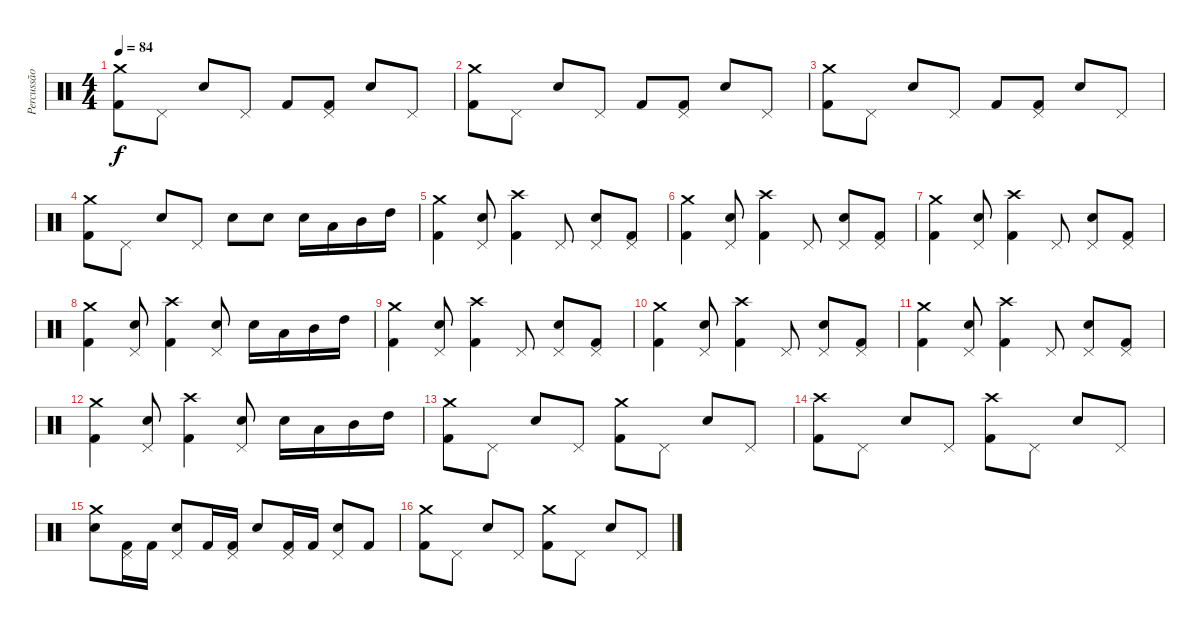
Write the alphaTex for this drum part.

\track ("Percussão" "Percussão") {instrument percussion}
\staff {score}
\articulation defaults
\ts (4 4)
\tempo 84
\clef neutral
\ks c
("Crash medium (hit)" "Kick (hit) 2").8{dy f} "Pedal Hi-Hat (hit)".8 "Snare (hit) 2".8 "Pedal Hi-Hat (hit)".8 "Kick (hit) 2".8 ("Pedal Hi-Hat (hit)" "Kick (hit) 2").8 "Snare (hit) 2".8 "Pedal Hi-Hat (hit)".8 |
("Crash medium (hit)" "Kick (hit) 2").8 "Pedal Hi-Hat (hit)".8 "Snare (hit) 2".8 "Pedal Hi-Hat (hit)".8 "Kick (hit) 2".8 ("Pedal Hi-Hat (hit)" "Kick (hit) 2").8 "Snare (hit) 2".8 "Pedal Hi-Hat (hit)".8 |
("Crash medium (hit)" "Kick (hit) 2").8 "Pedal Hi-Hat (hit)".8 "Snare (hit) 2".8 "Pedal Hi-Hat (hit)".8 "Kick (hit) 2".8 ("Pedal Hi-Hat (hit)" "Kick (hit) 2").8 "Snare (hit) 2".8 "Pedal Hi-Hat (hit)".8 |
("Crash medium (hit)" "Kick (hit) 2").8 "Pedal Hi-Hat (hit)".8 "Snare (hit) 2".8 "Pedal Hi-Hat (hit)".8 "Electric Snare (hit)".8 "Electric Snare (hit)".8 "Electric Snare (hit)".16 "Low Tom (hit)".16 "Mid Tom (hit)".16 "High Tom (hit)".16 |
("Crash medium (hit)" "Kick (hit) 2").4 ("Pedal Hi-Hat (hit)" "Snare (hit) 2").8 ("Crash high (hit)" "Kick (hit) 2").4 "Pedal Hi-Hat (hit)".8 ("Pedal Hi-Hat (hit)" "Snare (hit) 2").8 ("Pedal Hi-Hat (hit)" "Kick (hit) 2").8 |
("Crash medium (hit)" "Kick (hit) 2").4 ("Pedal Hi-Hat (hit)" "Snare (hit) 2").8 ("Crash high (hit)" "Kick (hit) 2").4 "Pedal Hi-Hat (hit)".8 ("Pedal Hi-Hat (hit)" "Snare (hit) 2").8 ("Pedal Hi-Hat (hit)" "Kick (hit) 2").8 |
("Crash medium (hit)" "Kick (hit) 2").4 ("Pedal Hi-Hat (hit)" "Snare (hit) 2").8 ("Crash high (hit)" "Kick (hit) 2").4 "Pedal Hi-Hat (hit)".8 ("Pedal Hi-Hat (hit)" "Snare (hit) 2").8 ("Pedal Hi-Hat (hit)" "Kick (hit) 2").8 |
("Crash medium (hit)" "Kick (hit) 2").4 ("Pedal Hi-Hat (hit)" "Snare (hit) 2").8 ("Crash high (hit)" "Kick (hit) 2").4 ("Pedal Hi-Hat (hit)" "Snare (hit) 2").8 "Snare (hit) 2".16 "Low Tom (hit)".16 "Mid Tom (hit)".16 "High Tom (hit)".16 |
("Crash medium (hit)" "Kick (hit) 2").4 ("Pedal Hi-Hat (hit)" "Snare (hit) 2").8 ("Crash high (hit)" "Kick (hit) 2").4 "Pedal Hi-Hat (hit)".8 ("Pedal Hi-Hat (hit)" "Snare (hit) 2").8 ("Pedal Hi-Hat (hit)" "Kick (hit) 2").8 |
("Crash medium (hit)" "Kick (hit) 2").4 ("Pedal Hi-Hat (hit)" "Snare (hit) 2").8 ("Crash high (hit)" "Kick (hit) 2").4 "Pedal Hi-Hat (hit)".8 ("Pedal Hi-Hat (hit)" "Snare (hit) 2").8 ("Pedal Hi-Hat (hit)" "Kick (hit) 2").8 |
("Crash medium (hit)" "Kick (hit) 2").4 ("Pedal Hi-Hat (hit)" "Snare (hit) 2").8 ("Crash high (hit)" "Kick (hit) 2").4 "Pedal Hi-Hat (hit)".8 ("Pedal Hi-Hat (hit)" "Snare (hit) 2").8 ("Pedal Hi-Hat (hit)" "Kick (hit) 2").8 |
("Crash medium (hit)" "Kick (hit) 2").4 ("Pedal Hi-Hat (hit)" "Snare (hit) 2").8 ("Crash high (hit)" "Kick (hit) 2").4 ("Pedal Hi-Hat (hit)" "Snare (hit) 2").8 "Snare (hit) 2".16 "Low Tom (hit)".16 "Mid Tom (hit)".16 "High Tom (hit)".16 |
("Crash medium (hit)" "Kick (hit) 2").8 "Pedal Hi-Hat (hit)".8 "Snare (hit) 2".8 "Pedal Hi-Hat (hit)".8 ("Crash medium (hit)" "Kick (hit) 2").8 "Pedal Hi-Hat (hit)".8 "Snare (hit) 2".8 "Pedal Hi-Hat (hit)".8 |
("Crash high (hit)" "Kick (hit) 2").8 "Pedal Hi-Hat (hit)".8 "Snare (hit) 2".8 "Pedal Hi-Hat (hit)".8 ("Crash high (hit)" "Kick (hit) 2").8 "Pedal Hi-Hat (hit)".8 "Snare (hit) 2".8 "Pedal Hi-Hat (hit)".8 |
("Crash medium (hit)" "Snare (hit) 2").8 ("Pedal Hi-Hat (hit)" "Kick (hit) 2").16 "Kick (hit) 2".16 ("Pedal Hi-Hat (hit)" "Snare (hit) 2").8 "Kick (hit) 2".16 ("Pedal Hi-Hat (hit)" "Kick (hit) 2").16 "Snare (hit) 2".8 ("Pedal Hi-Hat (hit)" "Kick (hit) 2").16 "Kick (hit) 2".16 ("Pedal Hi-Hat (hit)" "Snare (hit) 2").8 "Kick (hit) 2".8 |
("Crash medium (hit)" "Kick (hit) 2").8 "Pedal Hi-Hat (hit)".8 "Snare (hit) 2".8 "Pedal Hi-Hat (hit)".8 ("Crash medium (hit)" "Kick (hit) 2").8 "Pedal Hi-Hat (hit)".8 "Snare (hit) 2".8 "Pedal Hi-Hat (hit)".8
